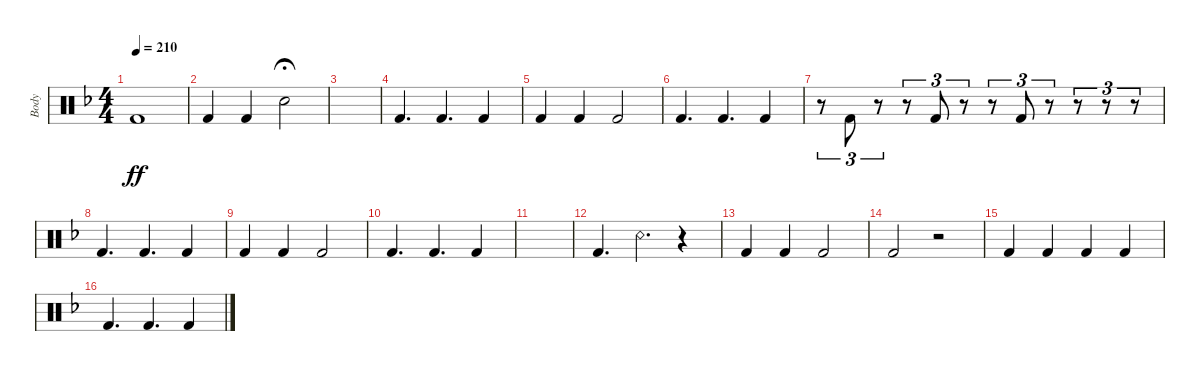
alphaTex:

\defaultSystemsLayout 2
\bracketExtendMode groupsimilarinstruments
\otherSystemsTrackNameOrientation horizontal
\track ("Body" "Body") {instrument percussion}
\staff {score}
\articulation defaults
\ts (4 4)
\beaming (8 3 3 2)
\scale
1.07424
\tempo 210
\accidentals auto
\clef neutral
\ottava regular
\simile none
\scale
0.5
\ks dminor "Kick (hit) 2"{acc forcenatural}.1{dy ff beam Up}
|
\scale
0.925762
\scale
0.25 "Kick (hit) 2"{acc forcenatural}.4{beam Up} "Kick (hit) 2"{acc forcenatural}.4{beam Up} "Snare (hit) 2"{acc forcenatural}.2{fermata (medium 1) beam Down} |
\scale
1.04787
\scale
0.25 |
\scale
0.952125
\scale
0.333333 "Kick (hit) 2"{acc forcenatural}.4{d beam Up} "Kick (hit) 2"{acc forcenatural}.4{d beam Up} "Kick (hit) 2"{acc forcenatural}.4{beam Up} |
\scale
1.04787
\scale
0.333333 "Kick (hit) 2"{acc forcenatural}.4{beam Up} "Kick (hit) 2"{acc forcenatural}.4{beam Up} "Kick (hit) 2"{acc forcenatural}.2{beam Up} |
\scale
0.952125
\scale
0.333333 "Kick (hit) 2"{acc forcenatural}.4{d beam Up} "Kick (hit) 2"{acc forcenatural}.4{d beam Up} "Kick (hit) 2"{acc forcenatural}.4{beam Up} |
\scale
1.04787
\scale
0.333333 r.8{tu (3 2) beam Down} "Kick (hit) 2"{acc forcenatural}.8{tu (3 2) beam Up} r.8{tu (3 2) beam Up} r.8{tu (3 2) beam Up} "Kick (hit) 2"{acc forcenatural}.8{tu (3 2) beam Up} r.8{tu (3 2) beam Up} r.8{tu (3 2) beam Up} "Kick (hit) 2"{acc forcenatural}.8{tu (3 2) beam Up} r.8{tu (3 2) beam Up} r.8{tu (3 2) beam Up} r.8{tu (3 2) beam Up} r.8{tu (3 2) beam Up} |
\scale
0.952125
\scale
0.333333 "Kick (hit) 2"{acc forcenatural}.4{d beam Up} "Kick (hit) 2"{acc forcenatural}.4{d beam Up} "Kick (hit) 2"{acc forcenatural}.4{beam Up} |
\scale
1.04787
\scale
0.333333 "Kick (hit) 2"{acc forcenatural}.4{beam Up} "Kick (hit) 2"{acc forcenatural}.4{beam Up} "Kick (hit) 2"{acc forcenatural}.2{beam Up} |
\scale
0.952125
\scale
0.333333 "Kick (hit) 2"{acc forcenatural}.4{d beam Up} "Kick (hit) 2"{acc forcenatural}.4{d beam Up} "Kick (hit) 2"{acc forcenatural}.4{beam Up} |
\scale
1.04787
\scale
0.333333 |
\scale
0.952125
\scale
0.333333 "Kick (hit) 2"{acc forcenatural}.4{d beam Up} "Snare (rim shot)"{acc forcenatural}.4{d beam Down} r.4{beam Down} |
\scale
1.05623
\scale
0.333333 "Kick (hit) 2"{acc forcenatural}.4{beam Up} "Kick (hit) 2"{acc forcenatural}.4{beam Up} "Kick (hit) 2"{acc forcenatural}.2{beam Up} |
\scale
0.94377
\scale
0.333333 "Kick (hit) 2"{acc forcenatural}.2{beam Up} r.2{beam Up} |
\scale
1.04787
\scale
0.333333 "Kick (hit) 2"{acc forcenatural}.4{beam Up} "Kick (hit) 2"{acc forcenatural}.4{beam Up} "Kick (hit) 2"{acc forcenatural}.4{beam Up} "Kick (hit) 2"{acc forcenatural}.4{beam Up} |
\scale
0.952125
\scale
0.333333 "Kick (hit) 2"{acc forcenatural}.4{d beam Up} "Kick (hit) 2"{acc forcenatural}.4{d beam Up} "Kick (hit) 2"{acc forcenatural}.4{beam Up}
